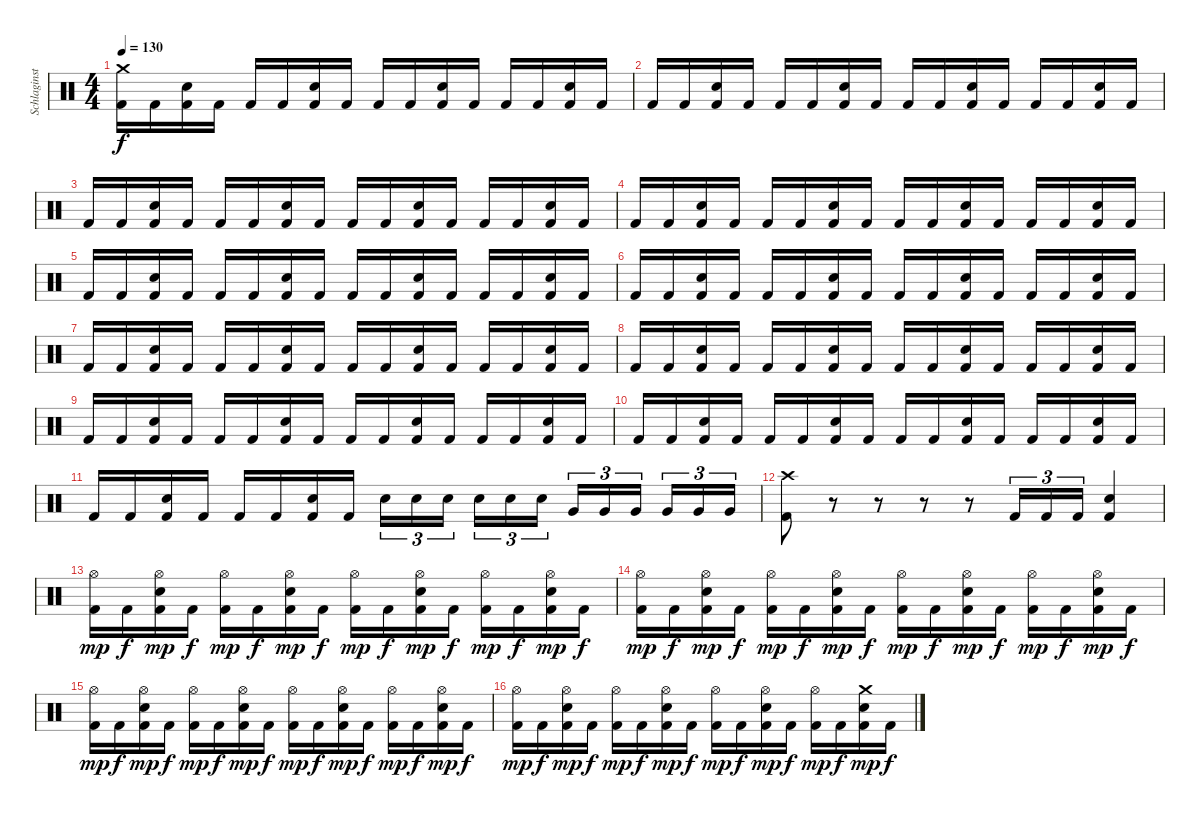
\track ("Schlaginstrumente - Auswahl" "Schlaginst") {instrument percussion}
\staff {score}
\articulation defaults
\ts (4 4)
\tempo 130
\clef neutral
\ks c
("Crash medium (hit)" "Kick (hit) 2").16{dy f} "Kick (hit) 2".16 ("Electric Snare (hit)" "Kick (hit) 2").16 "Kick (hit) 2".16 "Kick (hit) 2".16 "Kick (hit) 2".16 ("Electric Snare (hit)" "Kick (hit) 2").16 "Kick (hit) 2".16 "Kick (hit) 2".16 "Kick (hit) 2".16 ("Electric Snare (hit)" "Kick (hit) 2").16 "Kick (hit) 2".16 "Kick (hit) 2".16 "Kick (hit) 2".16 ("Electric Snare (hit)" "Kick (hit) 2").16 "Kick (hit) 2".16 |
"Kick (hit) 2".16 "Kick (hit) 2".16 ("Electric Snare (hit)" "Kick (hit) 2").16 "Kick (hit) 2".16 "Kick (hit) 2".16 "Kick (hit) 2".16 ("Electric Snare (hit)" "Kick (hit) 2").16 "Kick (hit) 2".16 "Kick (hit) 2".16 "Kick (hit) 2".16 ("Electric Snare (hit)" "Kick (hit) 2").16 "Kick (hit) 2".16 "Kick (hit) 2".16 "Kick (hit) 2".16 ("Electric Snare (hit)" "Kick (hit) 2").16 "Kick (hit) 2".16 |
"Kick (hit) 2".16 "Kick (hit) 2".16 ("Electric Snare (hit)" "Kick (hit) 2").16 "Kick (hit) 2".16 "Kick (hit) 2".16 "Kick (hit) 2".16 ("Electric Snare (hit)" "Kick (hit) 2").16 "Kick (hit) 2".16 "Kick (hit) 2".16 "Kick (hit) 2".16 ("Electric Snare (hit)" "Kick (hit) 2").16 "Kick (hit) 2".16 "Kick (hit) 2".16 "Kick (hit) 2".16 ("Electric Snare (hit)" "Kick (hit) 2").16 "Kick (hit) 2".16 |
"Kick (hit) 2".16 "Kick (hit) 2".16 ("Electric Snare (hit)" "Kick (hit) 2").16 "Kick (hit) 2".16 "Kick (hit) 2".16 "Kick (hit) 2".16 ("Electric Snare (hit)" "Kick (hit) 2").16 "Kick (hit) 2".16 "Kick (hit) 2".16 "Kick (hit) 2".16 ("Electric Snare (hit)" "Kick (hit) 2").16 "Kick (hit) 2".16 "Kick (hit) 2".16 "Kick (hit) 2".16 ("Electric Snare (hit)" "Kick (hit) 2").16 "Kick (hit) 2".16 |
"Kick (hit) 2".16 "Kick (hit) 2".16 ("Electric Snare (hit)" "Kick (hit) 2").16 "Kick (hit) 2".16 "Kick (hit) 2".16 "Kick (hit) 2".16 ("Electric Snare (hit)" "Kick (hit) 2").16 "Kick (hit) 2".16 "Kick (hit) 2".16 "Kick (hit) 2".16 ("Electric Snare (hit)" "Kick (hit) 2").16 "Kick (hit) 2".16 "Kick (hit) 2".16 "Kick (hit) 2".16 ("Electric Snare (hit)" "Kick (hit) 2").16 "Kick (hit) 2".16 |
"Kick (hit) 2".16 "Kick (hit) 2".16 ("Electric Snare (hit)" "Kick (hit) 2").16 "Kick (hit) 2".16 "Kick (hit) 2".16 "Kick (hit) 2".16 ("Electric Snare (hit)" "Kick (hit) 2").16 "Kick (hit) 2".16 "Kick (hit) 2".16 "Kick (hit) 2".16 ("Electric Snare (hit)" "Kick (hit) 2").16 "Kick (hit) 2".16 "Kick (hit) 2".16 "Kick (hit) 2".16 ("Electric Snare (hit)" "Kick (hit) 2").16 "Kick (hit) 2".16 |
"Kick (hit) 2".16 "Kick (hit) 2".16 ("Electric Snare (hit)" "Kick (hit) 2").16 "Kick (hit) 2".16 "Kick (hit) 2".16 "Kick (hit) 2".16 ("Electric Snare (hit)" "Kick (hit) 2").16 "Kick (hit) 2".16 "Kick (hit) 2".16 "Kick (hit) 2".16 ("Electric Snare (hit)" "Kick (hit) 2").16 "Kick (hit) 2".16 "Kick (hit) 2".16 "Kick (hit) 2".16 ("Electric Snare (hit)" "Kick (hit) 2").16 "Kick (hit) 2".16 |
"Kick (hit) 2".16 "Kick (hit) 2".16 ("Electric Snare (hit)" "Kick (hit) 2").16 "Kick (hit) 2".16 "Kick (hit) 2".16 "Kick (hit) 2".16 ("Electric Snare (hit)" "Kick (hit) 2").16 "Kick (hit) 2".16 "Kick (hit) 2".16 "Kick (hit) 2".16 ("Electric Snare (hit)" "Kick (hit) 2").16 "Kick (hit) 2".16 "Kick (hit) 2".16 "Kick (hit) 2".16 ("Electric Snare (hit)" "Kick (hit) 2").16 "Kick (hit) 2".16 |
"Kick (hit) 2".16 "Kick (hit) 2".16 ("Electric Snare (hit)" "Kick (hit) 2").16 "Kick (hit) 2".16 "Kick (hit) 2".16 "Kick (hit) 2".16 ("Electric Snare (hit)" "Kick (hit) 2").16 "Kick (hit) 2".16 "Kick (hit) 2".16 "Kick (hit) 2".16 ("Electric Snare (hit)" "Kick (hit) 2").16 "Kick (hit) 2".16 "Kick (hit) 2".16 "Kick (hit) 2".16 ("Electric Snare (hit)" "Kick (hit) 2").16 "Kick (hit) 2".16 |
"Kick (hit) 2".16 "Kick (hit) 2".16 ("Electric Snare (hit)" "Kick (hit) 2").16 "Kick (hit) 2".16 "Kick (hit) 2".16 "Kick (hit) 2".16 ("Electric Snare (hit)" "Kick (hit) 2").16 "Kick (hit) 2".16 "Kick (hit) 2".16 "Kick (hit) 2".16 ("Electric Snare (hit)" "Kick (hit) 2").16 "Kick (hit) 2".16 "Kick (hit) 2".16 "Kick (hit) 2".16 ("Electric Snare (hit)" "Kick (hit) 2").16 "Kick (hit) 2".16 |
"Kick (hit) 2".16 "Kick (hit) 2".16 ("Electric Snare (hit)" "Kick (hit) 2").16 "Kick (hit) 2".16 "Kick (hit) 2".16 "Kick (hit) 2".16 ("Electric Snare (hit)" "Kick (hit) 2").16 "Kick (hit) 2".16 "Electric Snare (hit)".16{tu (3 2)} "Electric Snare (hit)".16{tu (3 2)} "Electric Snare (hit)".16{tu (3 2) beam splitsecondary} "Electric Snare (hit)".16{tu (3 2)} "Electric Snare (hit)".16{tu (3 2)} "Electric Snare (hit)".16{tu (3 2)} "Very Low Tom (hit)".16{tu (3 2)} "Very Low Tom (hit)".16{tu (3 2)} "Very Low Tom (hit)".16{tu (3 2) beam splitsecondary} "Very Low Tom (hit)".16{tu (3 2)} "Very Low Tom (hit)".16{tu (3 2)} "Very Low Tom (hit)".16{tu (3 2)} |
("Crash high (hit)" "Kick (hit) 2").8 r.8 r.8 r.8 r.8 "Kick (hit) 2".16{tu (3 2)} "Kick (hit) 2".16{tu (3 2)} "Kick (hit) 2".16{tu (3 2)} ("Kick (hit) 2" "Electric Snare (hit)").4 |
("Hi-Hat (open)" "Kick (hit) 2").16{dy mp} "Kick (hit) 2".16{dy f} ("Hi-Hat (open)" "Electric Snare (hit)" "Kick (hit) 2").16{dy mp} "Kick (hit) 2".16{dy f} ("Hi-Hat (open)" "Kick (hit) 2").16{dy mp} "Kick (hit) 2".16{dy f} ("Hi-Hat (open)" "Electric Snare (hit)" "Kick (hit) 2").16{dy mp} "Kick (hit) 2".16{dy f} ("Hi-Hat (open)" "Kick (hit) 2").16{dy mp} "Kick (hit) 2".16{dy f} ("Hi-Hat (open)" "Electric Snare (hit)" "Kick (hit) 2").16{dy mp} "Kick (hit) 2".16{dy f} ("Hi-Hat (open)" "Kick (hit) 2").16{dy mp} "Kick (hit) 2".16{dy f} ("Hi-Hat (open)" "Electric Snare (hit)" "Kick (hit) 2").16{dy mp} "Kick (hit) 2".16{dy f} |
("Hi-Hat (open)" "Kick (hit) 2").16{dy mp} "Kick (hit) 2".16{dy f} ("Hi-Hat (open)" "Electric Snare (hit)" "Kick (hit) 2").16{dy mp} "Kick (hit) 2".16{dy f} ("Hi-Hat (open)" "Kick (hit) 2").16{dy mp} "Kick (hit) 2".16{dy f} ("Hi-Hat (open)" "Electric Snare (hit)" "Kick (hit) 2").16{dy mp} "Kick (hit) 2".16{dy f} ("Hi-Hat (open)" "Kick (hit) 2").16{dy mp} "Kick (hit) 2".16{dy f} ("Hi-Hat (open)" "Electric Snare (hit)" "Kick (hit) 2").16{dy mp} "Kick (hit) 2".16{dy f} ("Hi-Hat (open)" "Kick (hit) 2").16{dy mp} "Kick (hit) 2".16{dy f} ("Hi-Hat (open)" "Electric Snare (hit)" "Kick (hit) 2").16{dy mp} "Kick (hit) 2".16{dy f} |
("Hi-Hat (open)" "Kick (hit) 2").16{dy mp} "Kick (hit) 2".16{dy f} ("Hi-Hat (open)" "Electric Snare (hit)" "Kick (hit) 2").16{dy mp} "Kick (hit) 2".16{dy f} ("Hi-Hat (open)" "Kick (hit) 2").16{dy mp} "Kick (hit) 2".16{dy f} ("Hi-Hat (open)" "Electric Snare (hit)" "Kick (hit) 2").16{dy mp} "Kick (hit) 2".16{dy f} ("Hi-Hat (open)" "Kick (hit) 2").16{dy mp} "Kick (hit) 2".16{dy f} ("Hi-Hat (open)" "Electric Snare (hit)" "Kick (hit) 2").16{dy mp} "Kick (hit) 2".16{dy f} ("Hi-Hat (open)" "Kick (hit) 2").16{dy mp} "Kick (hit) 2".16{dy f} ("Hi-Hat (open)" "Electric Snare (hit)" "Kick (hit) 2").16{dy mp} "Kick (hit) 2".16{dy f} |
("Hi-Hat (open)" "Kick (hit) 2").16{dy mp} "Kick (hit) 2".16{dy f} ("Hi-Hat (open)" "Electric Snare (hit)" "Kick (hit) 2").16{dy mp} "Kick (hit) 2".16{dy f} ("Hi-Hat (open)" "Kick (hit) 2").16{dy mp} "Kick (hit) 2".16{dy f} ("Hi-Hat (open)" "Electric Snare (hit)" "Kick (hit) 2").16{dy mp} "Kick (hit) 2".16{dy f} ("Hi-Hat (open)" "Kick (hit) 2").16{dy mp} "Kick (hit) 2".16{dy f} ("Hi-Hat (open)" "Electric Snare (hit)" "Kick (hit) 2").16{dy mp} "Kick (hit) 2".16{dy f} ("Hi-Hat (open)" "Kick (hit) 2").16{dy mp} "Kick (hit) 2".16{dy f} ("Crash medium (hit)" "Electric Snare (hit)" "Kick (hit) 2").16{dy mp} "Kick (hit) 2".16{dy f}
